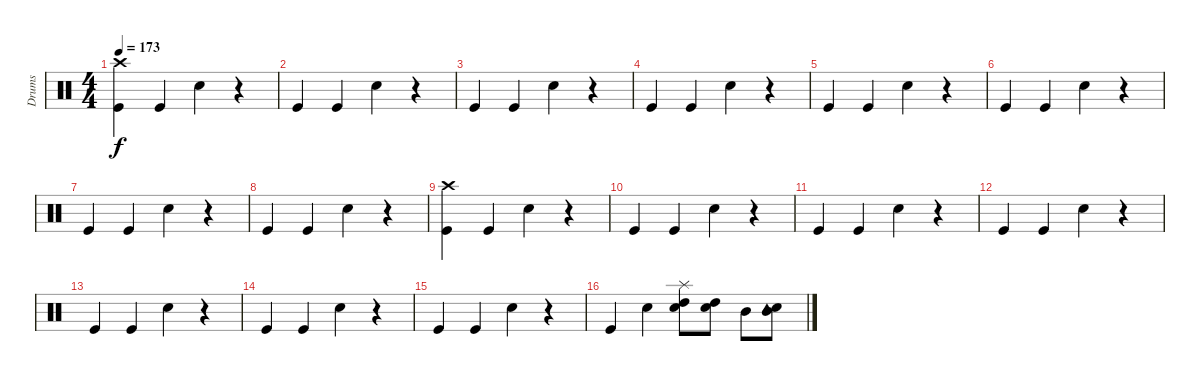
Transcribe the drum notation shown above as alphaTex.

\track ("Drums" "Drums") {instrument percussion}
\staff {score}
\articulation defaults
\ts (4 4)
\tempo 173
\clef neutral
\ks c
("Kick (hit)" "Crash high (hit)").4{dy f} "Kick (hit)".4 "Snare (hit) 2".4 r.4 |
"Kick (hit)".4 "Kick (hit)".4 "Snare (hit) 2".4 r.4 |
"Kick (hit)".4 "Kick (hit)".4 "Snare (hit) 2".4 r.4 |
"Kick (hit)".4 "Kick (hit)".4 "Snare (hit) 2".4 r.4 |
"Kick (hit)".4 "Kick (hit)".4 "Snare (hit) 2".4 r.4 |
"Kick (hit)".4 "Kick (hit)".4 "Snare (hit) 2".4 r.4 |
"Kick (hit)".4 "Kick (hit)".4 "Snare (hit) 2".4 r.4 |
"Kick (hit)".4 "Kick (hit)".4 "Snare (hit) 2".4 r.4 |
("Kick (hit)" "Crash high (hit)").4 "Kick (hit)".4 "Snare (hit) 2".4 r.4 |
"Kick (hit)".4 "Kick (hit)".4 "Snare (hit) 2".4 r.4 |
"Kick (hit)".4 "Kick (hit)".4 "Snare (hit) 2".4 r.4 |
"Kick (hit)".4 "Kick (hit)".4 "Snare (hit) 2".4 r.4 |
"Kick (hit)".4 "Kick (hit)".4 "Snare (hit) 2".4 r.4 |
"Kick (hit)".4 "Kick (hit)".4 "Snare (hit) 2".4 r.4 |
"Kick (hit)".4 "Kick (hit)".4 "Snare (hit) 2".4 r.4 |
"Kick (hit)".4 "Snare (hit) 2".4 ("Snare (hit) 2" "Splash (hit)" "High Tom (hit)").8 ("Snare (hit) 2" "High Tom (hit)").8 "Mid Tom (hit)".8 ("Snare (hit) 2" "Tambourine (hit)" "Mid Tom (hit)").8
